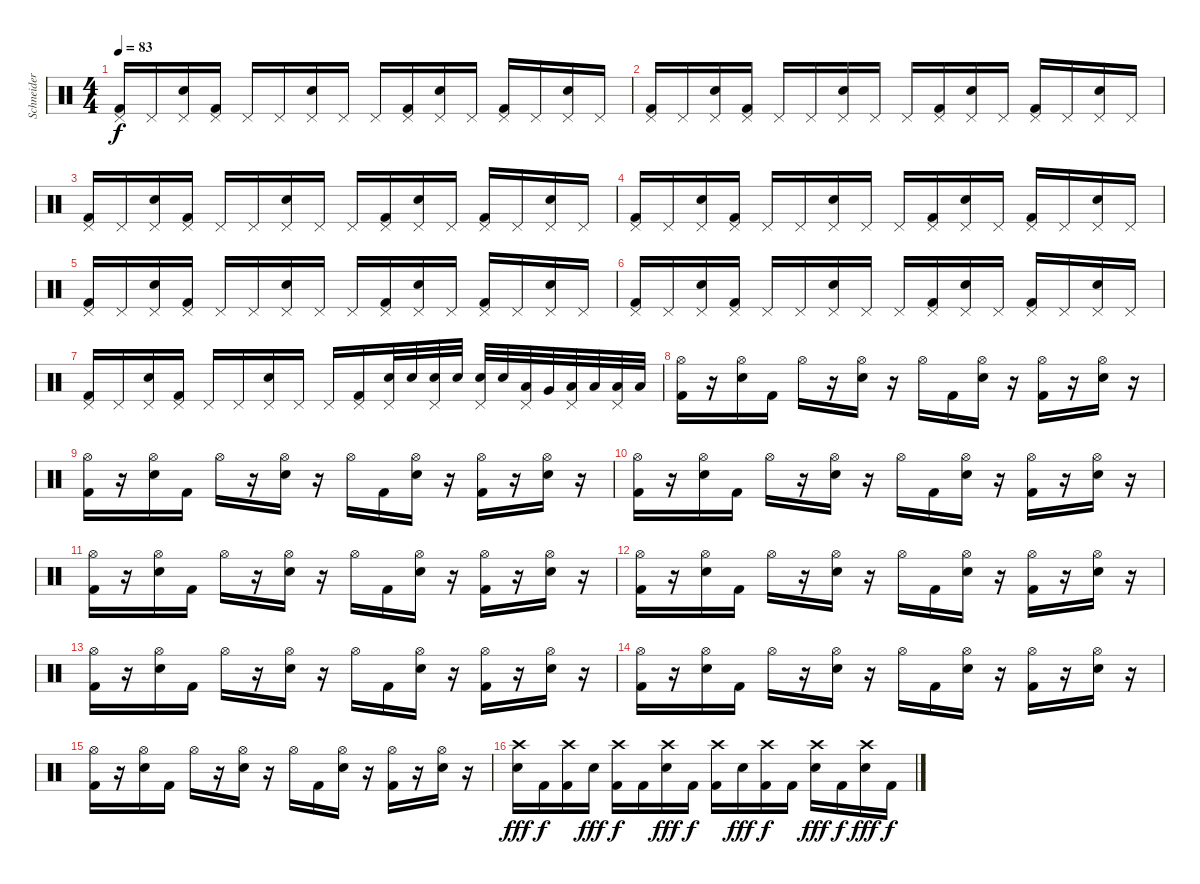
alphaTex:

\track ("Schneider" "Schneider") {instrument percussion}
\staff {score}
\articulation defaults
\ts (4 4)
\tempo 83
\clef neutral
\ks c
("Pedal Hi-Hat (hit)" "Kick (hit) 2").16{dy f volume 12} "Pedal Hi-Hat (hit)".16 ("Pedal Hi-Hat (hit)" "Electric Snare (hit)").16 ("Pedal Hi-Hat (hit)" "Kick (hit) 2").16 "Pedal Hi-Hat (hit)".16 "Pedal Hi-Hat (hit)".16 ("Pedal Hi-Hat (hit)" "Electric Snare (hit)").16 "Pedal Hi-Hat (hit)".16 "Pedal Hi-Hat (hit)".16 ("Pedal Hi-Hat (hit)" "Kick (hit) 2").16 ("Pedal Hi-Hat (hit)" "Electric Snare (hit)").16 "Pedal Hi-Hat (hit)".16 ("Pedal Hi-Hat (hit)" "Kick (hit) 2").16 "Pedal Hi-Hat (hit)".16 ("Pedal Hi-Hat (hit)" "Electric Snare (hit)").16 "Pedal Hi-Hat (hit)".16 |
("Pedal Hi-Hat (hit)" "Kick (hit) 2").16{volume 12} "Pedal Hi-Hat (hit)".16 ("Pedal Hi-Hat (hit)" "Electric Snare (hit)").16 ("Pedal Hi-Hat (hit)" "Kick (hit) 2").16 "Pedal Hi-Hat (hit)".16 "Pedal Hi-Hat (hit)".16 ("Pedal Hi-Hat (hit)" "Electric Snare (hit)").16 "Pedal Hi-Hat (hit)".16 "Pedal Hi-Hat (hit)".16 ("Pedal Hi-Hat (hit)" "Kick (hit) 2").16 ("Pedal Hi-Hat (hit)" "Electric Snare (hit)").16 "Pedal Hi-Hat (hit)".16 ("Pedal Hi-Hat (hit)" "Kick (hit) 2").16 "Pedal Hi-Hat (hit)".16 ("Pedal Hi-Hat (hit)" "Electric Snare (hit)").16 "Pedal Hi-Hat (hit)".16 |
("Pedal Hi-Hat (hit)" "Kick (hit) 2").16{volume 12} "Pedal Hi-Hat (hit)".16 ("Pedal Hi-Hat (hit)" "Electric Snare (hit)").16 ("Pedal Hi-Hat (hit)" "Kick (hit) 2").16 "Pedal Hi-Hat (hit)".16 "Pedal Hi-Hat (hit)".16 ("Pedal Hi-Hat (hit)" "Electric Snare (hit)").16 "Pedal Hi-Hat (hit)".16 "Pedal Hi-Hat (hit)".16 ("Pedal Hi-Hat (hit)" "Kick (hit) 2").16 ("Pedal Hi-Hat (hit)" "Electric Snare (hit)").16 "Pedal Hi-Hat (hit)".16 ("Pedal Hi-Hat (hit)" "Kick (hit) 2").16 "Pedal Hi-Hat (hit)".16 ("Pedal Hi-Hat (hit)" "Electric Snare (hit)").16 "Pedal Hi-Hat (hit)".16 |
("Pedal Hi-Hat (hit)" "Kick (hit) 2").16{volume 12} "Pedal Hi-Hat (hit)".16 ("Pedal Hi-Hat (hit)" "Electric Snare (hit)").16 ("Pedal Hi-Hat (hit)" "Kick (hit) 2").16 "Pedal Hi-Hat (hit)".16 "Pedal Hi-Hat (hit)".16 ("Pedal Hi-Hat (hit)" "Electric Snare (hit)").16 "Pedal Hi-Hat (hit)".16 "Pedal Hi-Hat (hit)".16 ("Pedal Hi-Hat (hit)" "Kick (hit) 2").16 ("Pedal Hi-Hat (hit)" "Electric Snare (hit)").16 "Pedal Hi-Hat (hit)".16 ("Pedal Hi-Hat (hit)" "Kick (hit) 2").16 "Pedal Hi-Hat (hit)".16 ("Pedal Hi-Hat (hit)" "Electric Snare (hit)").16 "Pedal Hi-Hat (hit)".16 |
("Pedal Hi-Hat (hit)" "Kick (hit) 2").16{volume 12} "Pedal Hi-Hat (hit)".16 ("Pedal Hi-Hat (hit)" "Electric Snare (hit)").16 ("Pedal Hi-Hat (hit)" "Kick (hit) 2").16 "Pedal Hi-Hat (hit)".16 "Pedal Hi-Hat (hit)".16 ("Pedal Hi-Hat (hit)" "Electric Snare (hit)").16 "Pedal Hi-Hat (hit)".16 "Pedal Hi-Hat (hit)".16 ("Pedal Hi-Hat (hit)" "Kick (hit) 2").16 ("Pedal Hi-Hat (hit)" "Electric Snare (hit)").16 "Pedal Hi-Hat (hit)".16 ("Pedal Hi-Hat (hit)" "Kick (hit) 2").16 "Pedal Hi-Hat (hit)".16 ("Pedal Hi-Hat (hit)" "Electric Snare (hit)").16 "Pedal Hi-Hat (hit)".16 |
("Pedal Hi-Hat (hit)" "Kick (hit) 2").16{volume 12} "Pedal Hi-Hat (hit)".16 ("Pedal Hi-Hat (hit)" "Electric Snare (hit)").16 ("Pedal Hi-Hat (hit)" "Kick (hit) 2").16 "Pedal Hi-Hat (hit)".16 "Pedal Hi-Hat (hit)".16 ("Pedal Hi-Hat (hit)" "Electric Snare (hit)").16 "Pedal Hi-Hat (hit)".16 "Pedal Hi-Hat (hit)".16 ("Pedal Hi-Hat (hit)" "Kick (hit) 2").16 ("Pedal Hi-Hat (hit)" "Electric Snare (hit)").16 "Pedal Hi-Hat (hit)".16 ("Pedal Hi-Hat (hit)" "Kick (hit) 2").16 "Pedal Hi-Hat (hit)".16 ("Pedal Hi-Hat (hit)" "Electric Snare (hit)").16 "Pedal Hi-Hat (hit)".16 |
("Pedal Hi-Hat (hit)" "Kick (hit) 2").16{volume 12} "Pedal Hi-Hat (hit)".16 ("Pedal Hi-Hat (hit)" "Electric Snare (hit)").16 ("Pedal Hi-Hat (hit)" "Kick (hit) 2").16 "Pedal Hi-Hat (hit)".16 "Pedal Hi-Hat (hit)".16 ("Pedal Hi-Hat (hit)" "Electric Snare (hit)").16 "Pedal Hi-Hat (hit)".16 "Pedal Hi-Hat (hit)".16 ("Pedal Hi-Hat (hit)" "Kick (hit) 2").16 ("Pedal Hi-Hat (hit)" "Electric Snare (hit)").32 "Electric Snare (hit)".32 ("Pedal Hi-Hat (hit)" "Electric Snare (hit)").32 "Electric Snare (hit)".32 ("Pedal Hi-Hat (hit)" "Electric Snare (hit)").32 "Electric Snare (hit)".32 ("Pedal Hi-Hat (hit)" "Low Tom (hit)").32 "Very Low Tom (hit)".32 ("Pedal Hi-Hat (hit)" "Low Floor Tom (hit)").32 "Low Floor Tom (hit)".32 ("Pedal Hi-Hat (hit)" "Low Floor Tom (hit)").32 "Low Floor Tom (hit)".32 |
("Hi-Hat (open)" "Kick (hit) 2").16 r.16 ("Hi-Hat (open)" "Electric Snare (hit)").16 "Kick (hit) 2".16 "Hi-Hat (open)".16 r.16 ("Hi-Hat (open)" "Electric Snare (hit)").16 r.16 "Hi-Hat (open)".16 "Kick (hit) 2".16 ("Hi-Hat (open)" "Electric Snare (hit)").16 r.16 ("Hi-Hat (open)" "Kick (hit) 2").16 r.16 ("Hi-Hat (open)" "Electric Snare (hit)").16 r.16 |
("Hi-Hat (open)" "Kick (hit) 2").16 r.16 ("Hi-Hat (open)" "Electric Snare (hit)").16 "Kick (hit) 2".16 "Hi-Hat (open)".16 r.16 ("Hi-Hat (open)" "Electric Snare (hit)").16 r.16 "Hi-Hat (open)".16 "Kick (hit) 2".16 ("Hi-Hat (open)" "Electric Snare (hit)").16 r.16 ("Hi-Hat (open)" "Kick (hit) 2").16 r.16 ("Hi-Hat (open)" "Electric Snare (hit)").16 r.16 |
("Hi-Hat (open)" "Kick (hit) 2").16 r.16 ("Hi-Hat (open)" "Electric Snare (hit)").16 "Kick (hit) 2".16 "Hi-Hat (open)".16 r.16 ("Hi-Hat (open)" "Electric Snare (hit)").16 r.16 "Hi-Hat (open)".16 "Kick (hit) 2".16 ("Hi-Hat (open)" "Electric Snare (hit)").16 r.16 ("Hi-Hat (open)" "Kick (hit) 2").16 r.16 ("Hi-Hat (open)" "Electric Snare (hit)").16 r.16 |
("Hi-Hat (open)" "Kick (hit) 2").16 r.16 ("Hi-Hat (open)" "Electric Snare (hit)").16 "Kick (hit) 2".16 "Hi-Hat (open)".16 r.16 ("Hi-Hat (open)" "Electric Snare (hit)").16 r.16 "Hi-Hat (open)".16 "Kick (hit) 2".16 ("Hi-Hat (open)" "Electric Snare (hit)").16 r.16 ("Hi-Hat (open)" "Kick (hit) 2").16 r.16 ("Hi-Hat (open)" "Electric Snare (hit)").16 r.16 |
("Hi-Hat (open)" "Kick (hit) 2").16 r.16 ("Hi-Hat (open)" "Electric Snare (hit)").16 "Kick (hit) 2".16 "Hi-Hat (open)".16 r.16 ("Hi-Hat (open)" "Electric Snare (hit)").16 r.16 "Hi-Hat (open)".16 "Kick (hit) 2".16 ("Hi-Hat (open)" "Electric Snare (hit)").16 r.16 ("Hi-Hat (open)" "Kick (hit) 2").16 r.16 ("Hi-Hat (open)" "Electric Snare (hit)").16 r.16 |
("Hi-Hat (open)" "Kick (hit) 2").16 r.16 ("Hi-Hat (open)" "Electric Snare (hit)").16 "Kick (hit) 2".16 "Hi-Hat (open)".16 r.16 ("Hi-Hat (open)" "Electric Snare (hit)").16 r.16 "Hi-Hat (open)".16 "Kick (hit) 2".16 ("Hi-Hat (open)" "Electric Snare (hit)").16 r.16 ("Hi-Hat (open)" "Kick (hit) 2").16 r.16 ("Hi-Hat (open)" "Electric Snare (hit)").16 r.16 |
("Hi-Hat (open)" "Kick (hit) 2").16 r.16 ("Hi-Hat (open)" "Electric Snare (hit)").16 "Kick (hit) 2".16 "Hi-Hat (open)".16 r.16 ("Hi-Hat (open)" "Electric Snare (hit)").16 r.16 "Hi-Hat (open)".16 "Kick (hit) 2".16 ("Hi-Hat (open)" "Electric Snare (hit)").16 r.16 ("Hi-Hat (open)" "Kick (hit) 2").16 r.16 ("Hi-Hat (open)" "Electric Snare (hit)").16 r.16 |
("Hi-Hat (open)" "Kick (hit) 2").16 r.16 ("Hi-Hat (open)" "Electric Snare (hit)").16 "Kick (hit) 2".16 "Hi-Hat (open)".16 r.16 ("Hi-Hat (open)" "Electric Snare (hit)").16 r.16 "Hi-Hat (open)".16 "Kick (hit) 2".16 ("Hi-Hat (open)" "Electric Snare (hit)").16 r.16 ("Hi-Hat (open)" "Kick (hit) 2").16 r.16 ("Hi-Hat (open)" "Electric Snare (hit)").16 r.16 |
("Crash high (hit)" "Electric Snare (hit)").16{dy fff} "Kick (hit) 2".16{dy f} ("Crash high (hit)" "Kick (hit) 2").16 "Electric Snare (hit)".16{dy fff} ("Crash high (hit)" "Kick (hit) 2").16{dy f} "Kick (hit) 2".16 ("Crash high (hit)" "Electric Snare (hit)").16{dy fff} "Kick (hit) 2".16{dy f} ("Crash high (hit)" "Kick (hit) 2").16 "Electric Snare (hit)".16{dy fff} ("Crash high (hit)" "Kick (hit) 2").16{dy f} "Kick (hit) 2".16 ("Crash high (hit)" "Electric Snare (hit)").16{dy fff} "Kick (hit) 2".16{dy f} ("Crash high (hit)" "Electric Snare (hit)").16{dy fff} "Kick (hit) 2".16{dy f}
